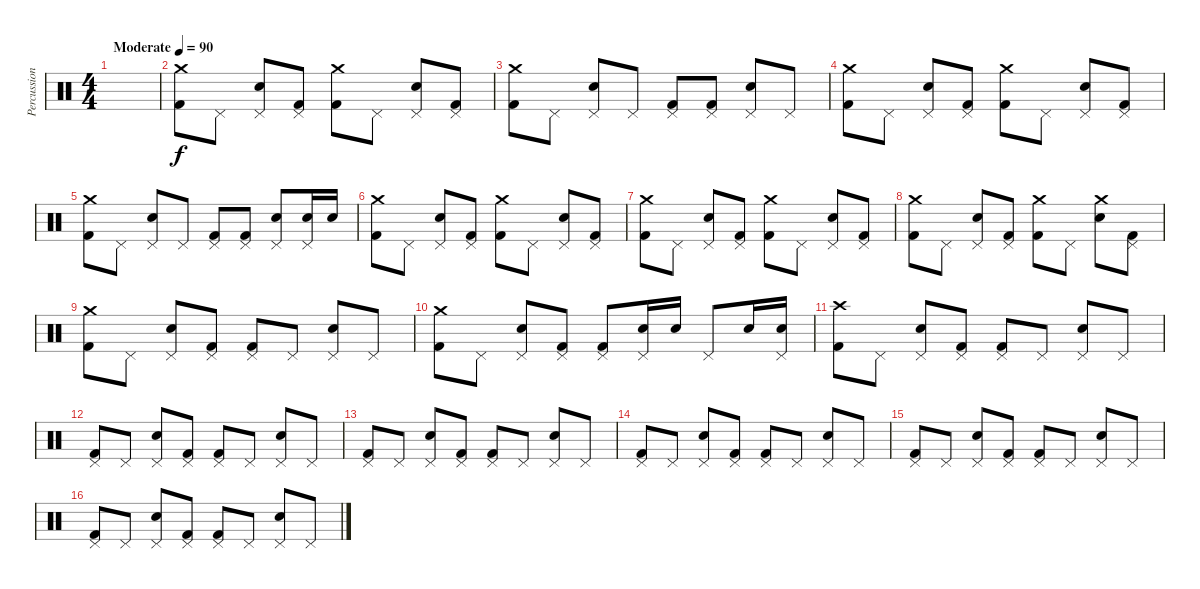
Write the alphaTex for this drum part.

\track ("Percussion" "Percussion") {instrument percussion}
\staff {score}
\articulation defaults
\ts (4 4)
\tempo (90 "Moderate")
\clef neutral
\ks c
|
("Crash medium (hit)" "Kick (hit) 2").8 "Pedal Hi-Hat (hit)".8 ("Pedal Hi-Hat (hit)" "Snare (hit) 2").8 ("Pedal Hi-Hat (hit)" "Kick (hit) 2").8 ("Crash medium (hit)" "Kick (hit) 2").8 "Pedal Hi-Hat (hit)".8 ("Pedal Hi-Hat (hit)" "Snare (hit) 2").8 ("Pedal Hi-Hat (hit)" "Kick (hit) 2").8 |
("Crash medium (hit)" "Kick (hit) 2").8 "Pedal Hi-Hat (hit)".8 ("Pedal Hi-Hat (hit)" "Snare (hit) 2").8 "Pedal Hi-Hat (hit)".8 ("Pedal Hi-Hat (hit)" "Kick (hit) 2").8 ("Pedal Hi-Hat (hit)" "Kick (hit) 2").8 ("Pedal Hi-Hat (hit)" "Snare (hit) 2").8 "Pedal Hi-Hat (hit)".8 |
("Crash medium (hit)" "Kick (hit) 2").8 "Pedal Hi-Hat (hit)".8 ("Pedal Hi-Hat (hit)" "Snare (hit) 2").8 ("Pedal Hi-Hat (hit)" "Kick (hit) 2").8 ("Crash medium (hit)" "Kick (hit) 2").8 "Pedal Hi-Hat (hit)".8 ("Pedal Hi-Hat (hit)" "Snare (hit) 2").8 ("Pedal Hi-Hat (hit)" "Kick (hit) 2").8 |
("Crash medium (hit)" "Kick (hit) 2").8 "Pedal Hi-Hat (hit)".8 ("Pedal Hi-Hat (hit)" "Snare (hit) 2").8 "Pedal Hi-Hat (hit)".8 ("Pedal Hi-Hat (hit)" "Kick (hit) 2").8 ("Pedal Hi-Hat (hit)" "Kick (hit) 2").8 ("Pedal Hi-Hat (hit)" "Snare (hit) 2").8 ("Pedal Hi-Hat (hit)" "Snare (hit) 2").16 "Snare (hit) 2".16 |
("Crash medium (hit)" "Kick (hit) 2").8 "Pedal Hi-Hat (hit)".8 ("Pedal Hi-Hat (hit)" "Snare (hit) 2").8 ("Pedal Hi-Hat (hit)" "Kick (hit) 2").8 ("Crash medium (hit)" "Kick (hit) 2").8 "Pedal Hi-Hat (hit)".8 ("Pedal Hi-Hat (hit)" "Snare (hit) 2").8 ("Pedal Hi-Hat (hit)" "Kick (hit) 2").8 |
("Crash medium (hit)" "Kick (hit) 2").8 "Pedal Hi-Hat (hit)".8 ("Pedal Hi-Hat (hit)" "Snare (hit) 2").8 ("Pedal Hi-Hat (hit)" "Kick (hit) 2").8 ("Crash medium (hit)" "Kick (hit) 2").8 "Pedal Hi-Hat (hit)".8 ("Pedal Hi-Hat (hit)" "Snare (hit) 2").8 ("Pedal Hi-Hat (hit)" "Kick (hit) 2").8 |
("Crash medium (hit)" "Kick (hit) 2").8 "Pedal Hi-Hat (hit)".8 ("Pedal Hi-Hat (hit)" "Snare (hit) 2").8 ("Pedal Hi-Hat (hit)" "Kick (hit) 2").8 ("Crash medium (hit)" "Kick (hit) 2").8 "Pedal Hi-Hat (hit)".8 ("Crash medium (hit)" "Snare (hit) 2").8 ("Pedal Hi-Hat (hit)" "Kick (hit) 2").8 |
("Crash medium (hit)" "Kick (hit) 2").8 "Pedal Hi-Hat (hit)".8 ("Pedal Hi-Hat (hit)" "Snare (hit) 2").8 ("Pedal Hi-Hat (hit)" "Kick (hit) 2").8 ("Pedal Hi-Hat (hit)" "Kick (hit) 2").8 "Pedal Hi-Hat (hit)".8 ("Pedal Hi-Hat (hit)" "Snare (hit) 2").8 "Pedal Hi-Hat (hit)".8 |
("Crash medium (hit)" "Kick (hit) 2").8 "Pedal Hi-Hat (hit)".8 ("Pedal Hi-Hat (hit)" "Snare (hit) 2").8 ("Pedal Hi-Hat (hit)" "Kick (hit) 2").8 ("Pedal Hi-Hat (hit)" "Kick (hit) 2").8 ("Pedal Hi-Hat (hit)" "Snare (hit) 2").16 "Snare (hit) 2".16 "Pedal Hi-Hat (hit)".8 "Snare (hit) 2".16 ("Pedal Hi-Hat (hit)" "Snare (hit) 2").16 |
("Crash high (hit)" "Kick (hit) 2").8 "Pedal Hi-Hat (hit)".8 ("Pedal Hi-Hat (hit)" "Snare (hit) 2").8 ("Pedal Hi-Hat (hit)" "Kick (hit) 2").8 ("Pedal Hi-Hat (hit)" "Kick (hit) 2").8 "Pedal Hi-Hat (hit)".8 ("Pedal Hi-Hat (hit)" "Snare (hit) 2").8 "Pedal Hi-Hat (hit)".8 |
("Pedal Hi-Hat (hit)" "Kick (hit) 2").8 "Pedal Hi-Hat (hit)".8 ("Pedal Hi-Hat (hit)" "Snare (hit) 2").8 ("Pedal Hi-Hat (hit)" "Kick (hit) 2").8 ("Pedal Hi-Hat (hit)" "Kick (hit) 2").8 "Pedal Hi-Hat (hit)".8 ("Pedal Hi-Hat (hit)" "Snare (hit) 2").8 "Pedal Hi-Hat (hit)".8 |
("Pedal Hi-Hat (hit)" "Kick (hit) 2").8 "Pedal Hi-Hat (hit)".8 ("Pedal Hi-Hat (hit)" "Snare (hit) 2").8 ("Pedal Hi-Hat (hit)" "Kick (hit) 2").8 ("Pedal Hi-Hat (hit)" "Kick (hit) 2").8 "Pedal Hi-Hat (hit)".8 ("Pedal Hi-Hat (hit)" "Snare (hit) 2").8 "Pedal Hi-Hat (hit)".8 |
("Pedal Hi-Hat (hit)" "Kick (hit) 2").8 "Pedal Hi-Hat (hit)".8 ("Pedal Hi-Hat (hit)" "Snare (hit) 2").8 ("Pedal Hi-Hat (hit)" "Kick (hit) 2").8 ("Pedal Hi-Hat (hit)" "Kick (hit) 2").8 "Pedal Hi-Hat (hit)".8 ("Pedal Hi-Hat (hit)" "Snare (hit) 2").8 "Pedal Hi-Hat (hit)".8 |
("Pedal Hi-Hat (hit)" "Kick (hit) 2").8 "Pedal Hi-Hat (hit)".8 ("Pedal Hi-Hat (hit)" "Snare (hit) 2").8 ("Pedal Hi-Hat (hit)" "Kick (hit) 2").8 ("Pedal Hi-Hat (hit)" "Kick (hit) 2").8 "Pedal Hi-Hat (hit)".8 ("Pedal Hi-Hat (hit)" "Snare (hit) 2").8 "Pedal Hi-Hat (hit)".8 |
("Pedal Hi-Hat (hit)" "Kick (hit) 2").8 "Pedal Hi-Hat (hit)".8 ("Pedal Hi-Hat (hit)" "Snare (hit) 2").8 ("Pedal Hi-Hat (hit)" "Kick (hit) 2").8 ("Pedal Hi-Hat (hit)" "Kick (hit) 2").8 "Pedal Hi-Hat (hit)".8 ("Pedal Hi-Hat (hit)" "Snare (hit) 2").8 "Pedal Hi-Hat (hit)".8
